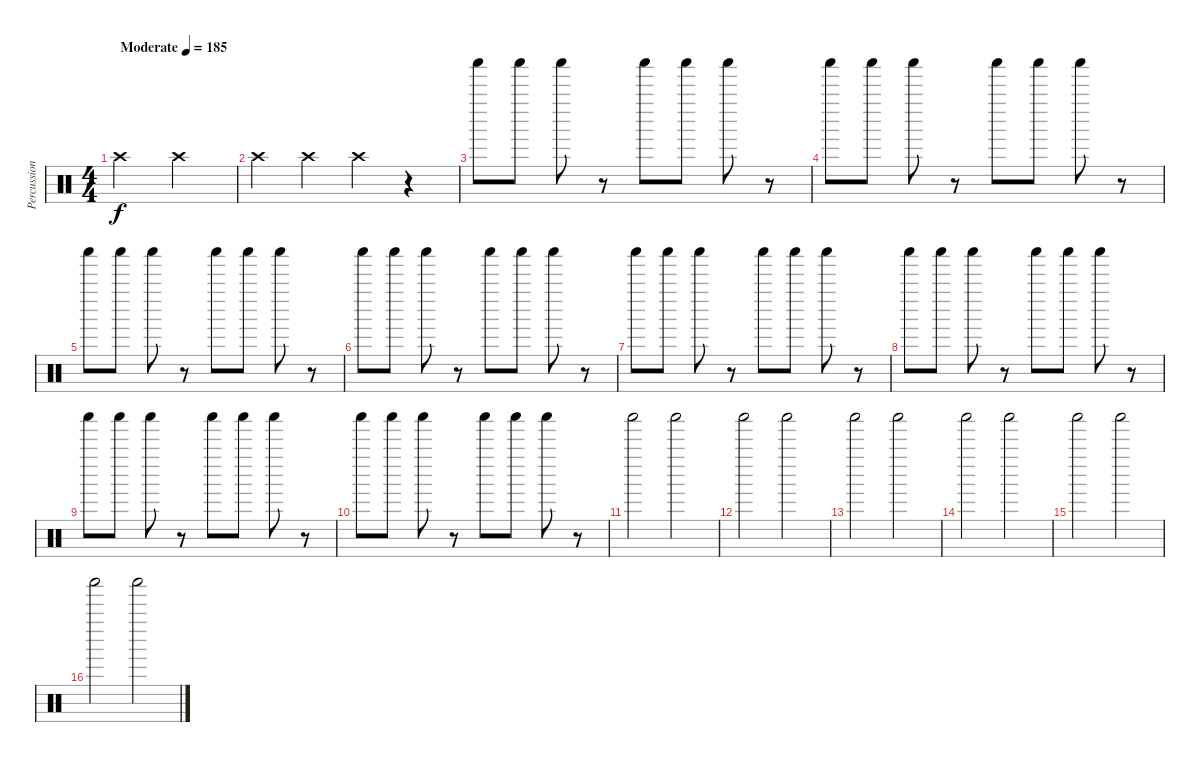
\track ("Percussion" "Percussion") {instrument percussion}
\staff {score}
\articulation defaults
\ts (4 4)
\tempo (185 "Moderate")
\clef neutral
\ks c "Crash high (hit)".2{dy f} "Crash high (hit)".2
|
"Crash high (hit)".4 "Crash high (hit)".4 "Crash high (hit)".4 r.4 |
"Shaker (hit)".8 "Shaker (hit)".8 "Shaker (hit)".8 r.8 "Shaker (hit)".8 "Shaker (hit)".8 "Shaker (hit)".8 r.8 |
"Shaker (hit)".8 "Shaker (hit)".8 "Shaker (hit)".8 r.8 "Shaker (hit)".8 "Shaker (hit)".8 "Shaker (hit)".8 r.8 |
"Shaker (hit)".8 "Shaker (hit)".8 "Shaker (hit)".8 r.8 "Shaker (hit)".8 "Shaker (hit)".8 "Shaker (hit)".8 r.8 |
"Shaker (hit)".8 "Shaker (hit)".8 "Shaker (hit)".8 r.8 "Shaker (hit)".8 "Shaker (hit)".8 "Shaker (hit)".8 r.8 |
"Shaker (hit)".8 "Shaker (hit)".8 "Shaker (hit)".8 r.8 "Shaker (hit)".8 "Shaker (hit)".8 "Shaker (hit)".8 r.8 |
"Shaker (hit)".8 "Shaker (hit)".8 "Shaker (hit)".8 r.8 "Shaker (hit)".8 "Shaker (hit)".8 "Shaker (hit)".8 r.8 |
"Shaker (hit)".8 "Shaker (hit)".8 "Shaker (hit)".8 r.8 "Shaker (hit)".8 "Shaker (hit)".8 "Shaker (hit)".8 r.8 |
"Shaker (hit)".8 "Shaker (hit)".8 "Shaker (hit)".8 r.8 "Shaker (hit)".8 "Shaker (hit)".8 "Shaker (hit)".8 r.8 |
"Shaker (hit)".2 "Shaker (hit)".2 |
"Shaker (hit)".2 "Shaker (hit)".2 |
"Shaker (hit)".2 "Shaker (hit)".2 |
"Shaker (hit)".2 "Shaker (hit)".2 |
"Shaker (hit)".2 "Shaker (hit)".2 |
"Shaker (hit)".2 "Shaker (hit)".2
